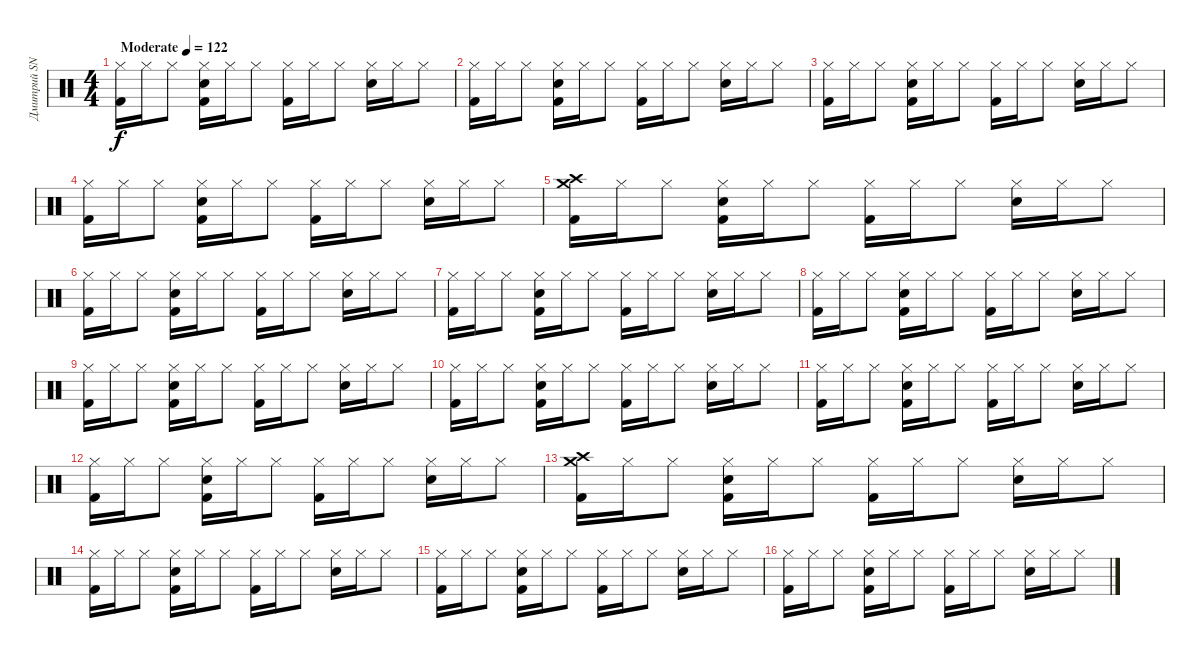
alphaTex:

\track ("Дмитрий SNAKE Хакимов" "Дмитрий SN") {instrument percussion}
\staff {score}
\articulation defaults
\ts (4 4)
\tempo (122 "Moderate")
\clef neutral
\ks c
("Hi-Hat (closed)" "Kick (hit) 2").16{dy f} "Hi-Hat (closed)".16 "Hi-Hat (closed)".8 ("Hi-Hat (closed)" "Snare (hit) 2" "Kick (hit) 2").16 "Hi-Hat (closed)".16 "Hi-Hat (closed)".8 ("Hi-Hat (closed)" "Kick (hit) 2").16 "Hi-Hat (closed)".16 "Hi-Hat (closed)".8 ("Hi-Hat (closed)" "Snare (hit) 2").16 "Hi-Hat (closed)".16 "Hi-Hat (closed)".8 |
("Hi-Hat (closed)" "Kick (hit) 2").16 "Hi-Hat (closed)".16 "Hi-Hat (closed)".8 ("Hi-Hat (closed)" "Snare (hit) 2" "Kick (hit) 2").16 "Hi-Hat (closed)".16 "Hi-Hat (closed)".8 ("Hi-Hat (closed)" "Kick (hit) 2").16 "Hi-Hat (closed)".16 "Hi-Hat (closed)".8 ("Hi-Hat (closed)" "Snare (hit) 2").16 "Hi-Hat (closed)".16 "Hi-Hat (closed)".8 |
("Hi-Hat (closed)" "Kick (hit) 2").16 "Hi-Hat (closed)".16 "Hi-Hat (closed)".8 ("Hi-Hat (closed)" "Snare (hit) 2" "Kick (hit) 2").16 "Hi-Hat (closed)".16 "Hi-Hat (closed)".8 ("Hi-Hat (closed)" "Kick (hit) 2").16 "Hi-Hat (closed)".16 "Hi-Hat (closed)".8 ("Hi-Hat (closed)" "Snare (hit) 2").16 "Hi-Hat (closed)".16 "Hi-Hat (closed)".8 |
("Hi-Hat (closed)" "Kick (hit) 2").16 "Hi-Hat (closed)".16 "Hi-Hat (closed)".8 ("Hi-Hat (closed)" "Snare (hit) 2" "Kick (hit) 2").16 "Hi-Hat (closed)".16 "Hi-Hat (closed)".8 ("Hi-Hat (closed)" "Kick (hit) 2").16 "Hi-Hat (closed)".16 "Hi-Hat (closed)".8 ("Hi-Hat (closed)" "Snare (hit) 2").16 "Hi-Hat (closed)".16 "Hi-Hat (closed)".8 |
("Crash high (hit)" "Crash medium (hit)" "Kick (hit) 2").16 "Hi-Hat (closed)".16 "Hi-Hat (closed)".8 ("Hi-Hat (closed)" "Snare (hit) 2" "Kick (hit) 2").16 "Hi-Hat (closed)".16 "Hi-Hat (closed)".8 ("Hi-Hat (closed)" "Kick (hit) 2").16 "Hi-Hat (closed)".16 "Hi-Hat (closed)".8 ("Hi-Hat (closed)" "Snare (hit) 2").16 "Hi-Hat (closed)".16 "Hi-Hat (closed)".8 |
("Hi-Hat (closed)" "Kick (hit) 2").16 "Hi-Hat (closed)".16 "Hi-Hat (closed)".8 ("Hi-Hat (closed)" "Snare (hit) 2" "Kick (hit) 2").16 "Hi-Hat (closed)".16 "Hi-Hat (closed)".8 ("Hi-Hat (closed)" "Kick (hit) 2").16 "Hi-Hat (closed)".16 "Hi-Hat (closed)".8 ("Hi-Hat (closed)" "Snare (hit) 2").16 "Hi-Hat (closed)".16 "Hi-Hat (closed)".8 |
("Hi-Hat (closed)" "Kick (hit) 2").16 "Hi-Hat (closed)".16 "Hi-Hat (closed)".8 ("Hi-Hat (closed)" "Snare (hit) 2" "Kick (hit) 2").16 "Hi-Hat (closed)".16 "Hi-Hat (closed)".8 ("Hi-Hat (closed)" "Kick (hit) 2").16 "Hi-Hat (closed)".16 "Hi-Hat (closed)".8 ("Hi-Hat (closed)" "Snare (hit) 2").16 "Hi-Hat (closed)".16 "Hi-Hat (closed)".8 |
("Hi-Hat (closed)" "Kick (hit) 2").16 "Hi-Hat (closed)".16 "Hi-Hat (closed)".8 ("Hi-Hat (closed)" "Snare (hit) 2" "Kick (hit) 2").16 "Hi-Hat (closed)".16 "Hi-Hat (closed)".8 ("Hi-Hat (closed)" "Kick (hit) 2").16 "Hi-Hat (closed)".16 "Hi-Hat (closed)".8 ("Hi-Hat (closed)" "Snare (hit) 2").16 "Hi-Hat (closed)".16 "Hi-Hat (closed)".8 |
("Hi-Hat (closed)" "Kick (hit) 2").16 "Hi-Hat (closed)".16 "Hi-Hat (closed)".8 ("Hi-Hat (closed)" "Snare (hit) 2" "Kick (hit) 2").16 "Hi-Hat (closed)".16 "Hi-Hat (closed)".8 ("Hi-Hat (closed)" "Kick (hit) 2").16 "Hi-Hat (closed)".16 "Hi-Hat (closed)".8 ("Hi-Hat (closed)" "Snare (hit) 2").16 "Hi-Hat (closed)".16 "Hi-Hat (closed)".8 |
("Hi-Hat (closed)" "Kick (hit) 2").16 "Hi-Hat (closed)".16 "Hi-Hat (closed)".8 ("Hi-Hat (closed)" "Snare (hit) 2" "Kick (hit) 2").16 "Hi-Hat (closed)".16 "Hi-Hat (closed)".8 ("Hi-Hat (closed)" "Kick (hit) 2").16 "Hi-Hat (closed)".16 "Hi-Hat (closed)".8 ("Hi-Hat (closed)" "Snare (hit) 2").16 "Hi-Hat (closed)".16 "Hi-Hat (closed)".8 |
("Hi-Hat (closed)" "Kick (hit) 2").16 "Hi-Hat (closed)".16 "Hi-Hat (closed)".8 ("Hi-Hat (closed)" "Snare (hit) 2" "Kick (hit) 2").16 "Hi-Hat (closed)".16 "Hi-Hat (closed)".8 ("Hi-Hat (closed)" "Kick (hit) 2").16 "Hi-Hat (closed)".16 "Hi-Hat (closed)".8 ("Hi-Hat (closed)" "Snare (hit) 2").16 "Hi-Hat (closed)".16 "Hi-Hat (closed)".8 |
("Hi-Hat (closed)" "Kick (hit) 2").16 "Hi-Hat (closed)".16 "Hi-Hat (closed)".8 ("Hi-Hat (closed)" "Snare (hit) 2" "Kick (hit) 2").16 "Hi-Hat (closed)".16 "Hi-Hat (closed)".8 ("Hi-Hat (closed)" "Kick (hit) 2").16 "Hi-Hat (closed)".16 "Hi-Hat (closed)".8 ("Hi-Hat (closed)" "Snare (hit) 2").16 "Hi-Hat (closed)".16 "Hi-Hat (closed)".8 |
("Crash high (hit)" "Crash medium (hit)" "Kick (hit) 2").16 "Hi-Hat (closed)".16 "Hi-Hat (closed)".8 ("Hi-Hat (closed)" "Snare (hit) 2" "Kick (hit) 2").16 "Hi-Hat (closed)".16 "Hi-Hat (closed)".8 ("Hi-Hat (closed)" "Kick (hit) 2").16 "Hi-Hat (closed)".16 "Hi-Hat (closed)".8 ("Hi-Hat (closed)" "Snare (hit) 2").16 "Hi-Hat (closed)".16 "Hi-Hat (closed)".8 |
("Hi-Hat (closed)" "Kick (hit) 2").16 "Hi-Hat (closed)".16 "Hi-Hat (closed)".8 ("Hi-Hat (closed)" "Snare (hit) 2" "Kick (hit) 2").16 "Hi-Hat (closed)".16 "Hi-Hat (closed)".8 ("Hi-Hat (closed)" "Kick (hit) 2").16 "Hi-Hat (closed)".16 "Hi-Hat (closed)".8 ("Hi-Hat (closed)" "Snare (hit) 2").16 "Hi-Hat (closed)".16 "Hi-Hat (closed)".8 |
("Hi-Hat (closed)" "Kick (hit) 2").16 "Hi-Hat (closed)".16 "Hi-Hat (closed)".8 ("Hi-Hat (closed)" "Snare (hit) 2" "Kick (hit) 2").16 "Hi-Hat (closed)".16 "Hi-Hat (closed)".8 ("Hi-Hat (closed)" "Kick (hit) 2").16 "Hi-Hat (closed)".16 "Hi-Hat (closed)".8 ("Hi-Hat (closed)" "Snare (hit) 2").16 "Hi-Hat (closed)".16 "Hi-Hat (closed)".8 |
("Hi-Hat (closed)" "Kick (hit) 2").16 "Hi-Hat (closed)".16 "Hi-Hat (closed)".8 ("Hi-Hat (closed)" "Snare (hit) 2" "Kick (hit) 2").16 "Hi-Hat (closed)".16 "Hi-Hat (closed)".8 ("Hi-Hat (closed)" "Kick (hit) 2").16 "Hi-Hat (closed)".16 "Hi-Hat (closed)".8 ("Hi-Hat (closed)" "Snare (hit) 2").16 "Hi-Hat (closed)".16 "Hi-Hat (closed)".8
